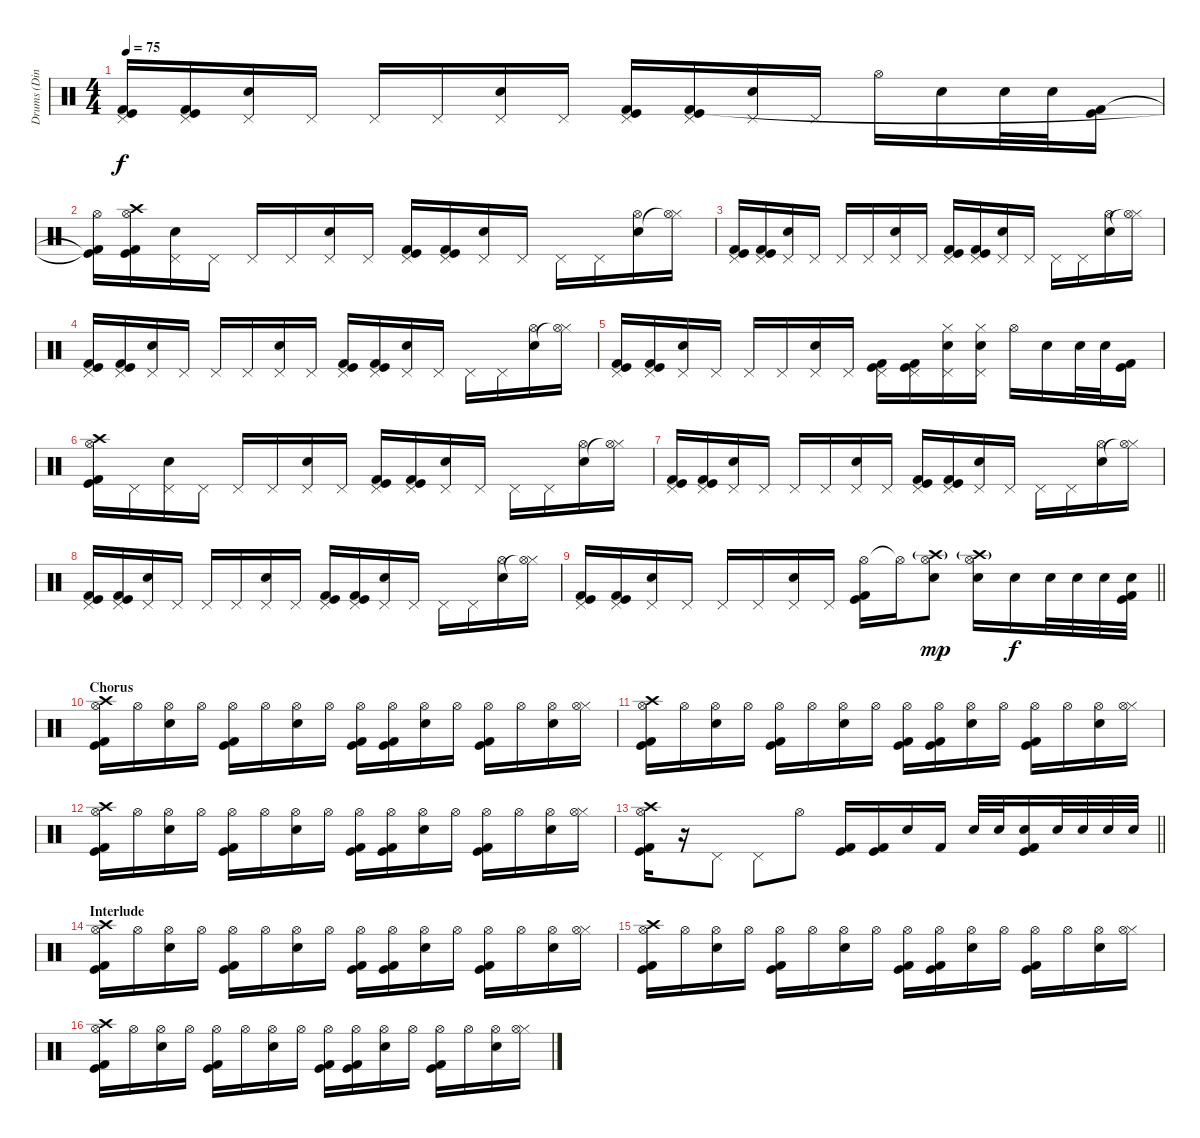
\track ("Drums (Din-din)" "Drums (Din") {instrument percussion}
\staff {score}
\articulation defaults
\ts (4 4)
\tempo 75
\clef neutral
\ks c
("Pedal Hi-Hat (hit)" "Kick (hit)" "Kick (hit) 2").16{dy f} ("Pedal Hi-Hat (hit)" "Kick (hit)" "Kick (hit) 2").16 ("Pedal Hi-Hat (hit)" "Snare (hit) 2").16 "Pedal Hi-Hat (hit)".16 "Pedal Hi-Hat (hit)".16 "Pedal Hi-Hat (hit)".16 ("Pedal Hi-Hat (hit)" "Snare (hit) 2").16 "Pedal Hi-Hat (hit)".16 ("Pedal Hi-Hat (hit)" "Kick (hit)" "Kick (hit) 2").16 ("Pedal Hi-Hat (hit)" "Kick (hit)" "Kick (hit) 2").16 ("Pedal Hi-Hat (hit)" "Snare (hit) 2").16 "Pedal Hi-Hat (hit)".16 "Hi-Hat (open)".16 "Snare (hit) 2".16 "Snare (hit) 2".32 "Snare (hit) 2".32 ("Kick (hit)" "Kick (hit) 2").16 |
("Hi-Hat (open)" "Kick (hit)"{t} "Kick (hit) 2"{t}).16 ("Crash high (hit)" "Hi-Hat (open)" "Kick (hit)" "Kick (hit) 2").16 ("Pedal Hi-Hat (hit)" "Snare (hit) 2").16 "Pedal Hi-Hat (hit)".16 "Pedal Hi-Hat (hit)".16 "Pedal Hi-Hat (hit)".16 ("Pedal Hi-Hat (hit)" "Snare (hit) 2").16 "Pedal Hi-Hat (hit)".16 ("Pedal Hi-Hat (hit)" "Kick (hit)" "Kick (hit) 2").16 ("Pedal Hi-Hat (hit)" "Kick (hit)" "Kick (hit) 2").16 ("Pedal Hi-Hat (hit)" "Snare (hit) 2").16 "Pedal Hi-Hat (hit)".16 "Pedal Hi-Hat (hit)".16 "Pedal Hi-Hat (hit)".16 ("Hi-Hat (open)" "Snare (hit) 2").16 ("Hi-Hat (closed)" "Hi-Hat (open)"{t}).16 |
("Pedal Hi-Hat (hit)" "Kick (hit)" "Kick (hit) 2").16 ("Pedal Hi-Hat (hit)" "Kick (hit)" "Kick (hit) 2").16 ("Pedal Hi-Hat (hit)" "Snare (hit) 2").16 "Pedal Hi-Hat (hit)".16 "Pedal Hi-Hat (hit)".16 "Pedal Hi-Hat (hit)".16 ("Pedal Hi-Hat (hit)" "Snare (hit) 2").16 "Pedal Hi-Hat (hit)".16 ("Pedal Hi-Hat (hit)" "Kick (hit)" "Kick (hit) 2").16 ("Pedal Hi-Hat (hit)" "Kick (hit)" "Kick (hit) 2").16 ("Pedal Hi-Hat (hit)" "Snare (hit) 2").16 "Pedal Hi-Hat (hit)".16 "Pedal Hi-Hat (hit)".16 "Pedal Hi-Hat (hit)".16 ("Hi-Hat (open)" "Snare (hit) 2").16 ("Hi-Hat (closed)" "Hi-Hat (open)"{t}).16 |
("Pedal Hi-Hat (hit)" "Kick (hit)" "Kick (hit) 2").16 ("Pedal Hi-Hat (hit)" "Kick (hit)" "Kick (hit) 2").16 ("Pedal Hi-Hat (hit)" "Snare (hit) 2").16 "Pedal Hi-Hat (hit)".16 "Pedal Hi-Hat (hit)".16 "Pedal Hi-Hat (hit)".16 ("Pedal Hi-Hat (hit)" "Snare (hit) 2").16 "Pedal Hi-Hat (hit)".16 ("Pedal Hi-Hat (hit)" "Kick (hit)" "Kick (hit) 2").16 ("Pedal Hi-Hat (hit)" "Kick (hit)" "Kick (hit) 2").16 ("Pedal Hi-Hat (hit)" "Snare (hit) 2").16 "Pedal Hi-Hat (hit)".16 "Pedal Hi-Hat (hit)".16 "Pedal Hi-Hat (hit)".16 ("Hi-Hat (open)" "Snare (hit) 2").16 ("Hi-Hat (closed)" "Hi-Hat (open)"{t}).16 |
("Pedal Hi-Hat (hit)" "Kick (hit)" "Kick (hit) 2").16 ("Pedal Hi-Hat (hit)" "Kick (hit)" "Kick (hit) 2").16 ("Pedal Hi-Hat (hit)" "Snare (hit) 2").16 "Pedal Hi-Hat (hit)".16 "Pedal Hi-Hat (hit)".16 "Pedal Hi-Hat (hit)".16 ("Pedal Hi-Hat (hit)" "Snare (hit) 2").16 "Pedal Hi-Hat (hit)".16 ("Pedal Hi-Hat (hit)" "Kick (hit)" "Kick (hit) 2").16 ("Pedal Hi-Hat (hit)" "Kick (hit)" "Kick (hit) 2").16 ("Hi-Hat (closed)" "Pedal Hi-Hat (hit)" "Snare (hit) 2").16 ("Hi-Hat (closed)" "Pedal Hi-Hat (hit)" "Snare (hit) 2").16 "Hi-Hat (open)".16 "Snare (hit) 2".16 "Snare (hit) 2".32 "Snare (hit) 2".32 ("Kick (hit)" "Kick (hit) 2").16 |
("Crash high (hit)" "Hi-Hat (open)" "Kick (hit)" "Kick (hit) 2").16 "Pedal Hi-Hat (hit)".16 ("Pedal Hi-Hat (hit)" "Snare (hit) 2").16 "Pedal Hi-Hat (hit)".16 "Pedal Hi-Hat (hit)".16 "Pedal Hi-Hat (hit)".16 ("Pedal Hi-Hat (hit)" "Snare (hit) 2").16 "Pedal Hi-Hat (hit)".16 ("Pedal Hi-Hat (hit)" "Kick (hit)" "Kick (hit) 2").16 ("Pedal Hi-Hat (hit)" "Kick (hit)" "Kick (hit) 2").16 ("Pedal Hi-Hat (hit)" "Snare (hit) 2").16 "Pedal Hi-Hat (hit)".16 "Pedal Hi-Hat (hit)".16 "Pedal Hi-Hat (hit)".16 ("Hi-Hat (open)" "Snare (hit) 2").16 ("Hi-Hat (closed)" "Hi-Hat (open)"{t}).16 |
("Pedal Hi-Hat (hit)" "Kick (hit)" "Kick (hit) 2").16 ("Pedal Hi-Hat (hit)" "Kick (hit)" "Kick (hit) 2").16 ("Pedal Hi-Hat (hit)" "Snare (hit) 2").16 "Pedal Hi-Hat (hit)".16 "Pedal Hi-Hat (hit)".16 "Pedal Hi-Hat (hit)".16 ("Pedal Hi-Hat (hit)" "Snare (hit) 2").16 "Pedal Hi-Hat (hit)".16 ("Pedal Hi-Hat (hit)" "Kick (hit)" "Kick (hit) 2").16 ("Pedal Hi-Hat (hit)" "Kick (hit)" "Kick (hit) 2").16 ("Pedal Hi-Hat (hit)" "Snare (hit) 2").16 "Pedal Hi-Hat (hit)".16 "Pedal Hi-Hat (hit)".16 "Pedal Hi-Hat (hit)".16 ("Hi-Hat (open)" "Snare (hit) 2").16 ("Hi-Hat (closed)" "Hi-Hat (open)"{t}).16 |
("Pedal Hi-Hat (hit)" "Kick (hit)" "Kick (hit) 2").16 ("Pedal Hi-Hat (hit)" "Kick (hit)" "Kick (hit) 2").16 ("Pedal Hi-Hat (hit)" "Snare (hit) 2").16 "Pedal Hi-Hat (hit)".16 "Pedal Hi-Hat (hit)".16 "Pedal Hi-Hat (hit)".16 ("Pedal Hi-Hat (hit)" "Snare (hit) 2").16 "Pedal Hi-Hat (hit)".16 ("Pedal Hi-Hat (hit)" "Kick (hit)" "Kick (hit) 2").16 ("Pedal Hi-Hat (hit)" "Kick (hit)" "Kick (hit) 2").16 ("Pedal Hi-Hat (hit)" "Snare (hit) 2").16 "Pedal Hi-Hat (hit)".16 "Pedal Hi-Hat (hit)".16 "Pedal Hi-Hat (hit)".16 ("Hi-Hat (open)" "Snare (hit) 2").16 ("Hi-Hat (closed)" "Hi-Hat (open)"{t}).16 |
\barLineRight lightlight
("Pedal Hi-Hat (hit)" "Kick (hit)" "Kick (hit) 2").16 ("Pedal Hi-Hat (hit)" "Kick (hit)" "Kick (hit) 2").16 ("Pedal Hi-Hat (hit)" "Snare (hit) 2").16 "Pedal Hi-Hat (hit)".16 "Pedal Hi-Hat (hit)".16 "Pedal Hi-Hat (hit)".16 ("Pedal Hi-Hat (hit)" "Snare (hit) 2").16 "Pedal Hi-Hat (hit)".16 ("Hi-Hat (open)" "Kick (hit)" "Kick (hit) 2").16 "Hi-Hat (open)"{t}.16 ("Crash high (hit)"{g} "Hi-Hat (open)" "Snare (hit) 2").8{dy mp} ("Crash high (hit)"{g} "Hi-Hat (open)" "Snare (hit) 2").16 "Snare (hit) 2".16{dy f} "Snare (hit) 2".32 "Snare (hit) 2".32 "Snare (hit) 2".32 ("Snare (hit) 2" "Kick (hit)" "Kick (hit) 2").32 |
\section ("" "Chorus")
("Crash high (hit)" "Hi-Hat (open)" "Kick (hit)" "Kick (hit) 2").16 "Hi-Hat (open)".16 ("Hi-Hat (open)" "Snare (hit) 2").16 "Hi-Hat (open)".16 ("Hi-Hat (open)" "Kick (hit)" "Kick (hit) 2").16 "Hi-Hat (open)".16 ("Hi-Hat (open)" "Snare (hit) 2").16 "Hi-Hat (open)".16 ("Hi-Hat (open)" "Kick (hit)" "Kick (hit) 2").16 ("Hi-Hat (open)" "Kick (hit)" "Kick (hit) 2").16 ("Hi-Hat (open)" "Snare (hit) 2").16 "Hi-Hat (open)".16 ("Hi-Hat (open)" "Kick (hit)" "Kick (hit) 2").16 "Hi-Hat (open)".16 ("Hi-Hat (open)" "Snare (hit) 2").16 ("Hi-Hat (closed)" "Hi-Hat (open)").16 |
("Crash high (hit)" "Hi-Hat (open)" "Kick (hit)" "Kick (hit) 2").16 "Hi-Hat (open)".16 ("Hi-Hat (open)" "Snare (hit) 2").16 "Hi-Hat (open)".16 ("Hi-Hat (open)" "Kick (hit)" "Kick (hit) 2").16 "Hi-Hat (open)".16 ("Hi-Hat (open)" "Snare (hit) 2").16 "Hi-Hat (open)".16 ("Hi-Hat (open)" "Kick (hit)" "Kick (hit) 2").16 ("Hi-Hat (open)" "Kick (hit)" "Kick (hit) 2").16 ("Hi-Hat (open)" "Snare (hit) 2").16 "Hi-Hat (open)".16 ("Hi-Hat (open)" "Kick (hit)" "Kick (hit) 2").16 "Hi-Hat (open)".16 ("Hi-Hat (open)" "Snare (hit) 2").16 ("Hi-Hat (closed)" "Hi-Hat (open)").16 |
("Crash high (hit)" "Hi-Hat (open)" "Kick (hit)" "Kick (hit) 2").16 "Hi-Hat (open)".16 ("Hi-Hat (open)" "Snare (hit) 2").16 "Hi-Hat (open)".16 ("Hi-Hat (open)" "Kick (hit)" "Kick (hit) 2").16 "Hi-Hat (open)".16 ("Hi-Hat (open)" "Snare (hit) 2").16 "Hi-Hat (open)".16 ("Hi-Hat (open)" "Kick (hit)" "Kick (hit) 2").16 ("Hi-Hat (open)" "Kick (hit)" "Kick (hit) 2").16 ("Hi-Hat (open)" "Snare (hit) 2").16 "Hi-Hat (open)".16 ("Hi-Hat (open)" "Kick (hit)" "Kick (hit) 2").16 "Hi-Hat (open)".16 ("Hi-Hat (open)" "Snare (hit) 2").16 ("Hi-Hat (closed)" "Hi-Hat (open)").16 |
\barLineRight lightlight
("Crash high (hit)" "Hi-Hat (open)" "Kick (hit)" "Kick (hit) 2").16 r.16 "Pedal Hi-Hat (hit)".8 "Pedal Hi-Hat (hit)".8 "Hi-Hat (open)".8 ("Kick (hit)" "Kick (hit) 2").16 ("Kick (hit)" "Kick (hit) 2").16 "Snare (hit) 2".16 "Kick (hit) 2".16 "Snare (hit) 2".32 "Snare (hit) 2".32 ("Snare (hit) 2" "Kick (hit)" "Kick (hit) 2").16 "Snare (hit) 2".32 "Snare (hit) 2".32 "Snare (hit) 2".32 "Snare (hit) 2".32 |
\section ("" "Interlude")
("Crash high (hit)" "Hi-Hat (open)" "Kick (hit)" "Kick (hit) 2").16 "Hi-Hat (open)".16 ("Hi-Hat (open)" "Snare (hit) 2").16 "Hi-Hat (open)".16 ("Hi-Hat (open)" "Kick (hit)" "Kick (hit) 2").16 "Hi-Hat (open)".16 ("Hi-Hat (open)" "Snare (hit) 2").16 "Hi-Hat (open)".16 ("Hi-Hat (open)" "Kick (hit)" "Kick (hit) 2").16 ("Hi-Hat (open)" "Kick (hit)" "Kick (hit) 2").16 ("Hi-Hat (open)" "Snare (hit) 2").16 "Hi-Hat (open)".16 ("Hi-Hat (open)" "Kick (hit)" "Kick (hit) 2").16 "Hi-Hat (open)".16 ("Hi-Hat (open)" "Snare (hit) 2").16 ("Hi-Hat (closed)" "Hi-Hat (open)").16 |
("Crash high (hit)" "Hi-Hat (open)" "Kick (hit)" "Kick (hit) 2").16 "Hi-Hat (open)".16 ("Hi-Hat (open)" "Snare (hit) 2").16 "Hi-Hat (open)".16 ("Hi-Hat (open)" "Kick (hit)" "Kick (hit) 2").16 "Hi-Hat (open)".16 ("Hi-Hat (open)" "Snare (hit) 2").16 "Hi-Hat (open)".16 ("Hi-Hat (open)" "Kick (hit)" "Kick (hit) 2").16 ("Hi-Hat (open)" "Kick (hit)" "Kick (hit) 2").16 ("Hi-Hat (open)" "Snare (hit) 2").16 "Hi-Hat (open)".16 ("Hi-Hat (open)" "Kick (hit)" "Kick (hit) 2").16 "Hi-Hat (open)".16 ("Hi-Hat (open)" "Snare (hit) 2").16 ("Hi-Hat (closed)" "Hi-Hat (open)").16 |
("Crash high (hit)" "Hi-Hat (open)" "Kick (hit)" "Kick (hit) 2").16 "Hi-Hat (open)".16 ("Hi-Hat (open)" "Snare (hit) 2").16 "Hi-Hat (open)".16 ("Hi-Hat (open)" "Kick (hit)" "Kick (hit) 2").16 "Hi-Hat (open)".16 ("Hi-Hat (open)" "Snare (hit) 2").16 "Hi-Hat (open)".16 ("Hi-Hat (open)" "Kick (hit)" "Kick (hit) 2").16 ("Hi-Hat (open)" "Kick (hit)" "Kick (hit) 2").16 ("Hi-Hat (open)" "Snare (hit) 2").16 "Hi-Hat (open)".16 ("Hi-Hat (open)" "Kick (hit)" "Kick (hit) 2").16 "Hi-Hat (open)".16 ("Hi-Hat (open)" "Snare (hit) 2").16 ("Hi-Hat (closed)" "Hi-Hat (open)").16
